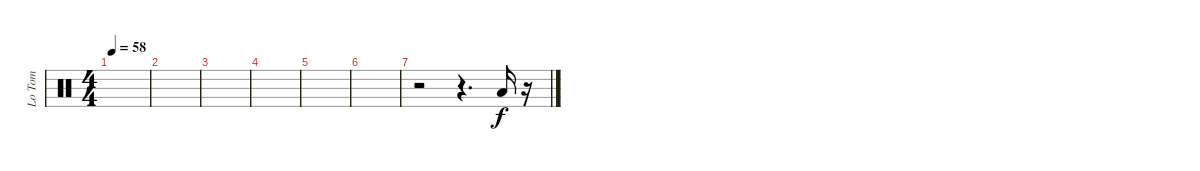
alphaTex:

\track ("Lo Tom" "Lo Tom") {instrument percussion}
\staff {score}
\articulation defaults
\ts (4 4)
\tempo 58
\clef neutral
\ks c
|
|
|
|
|
|
r.2 r.4{d} "Low Tom (hit)".16 r.16
